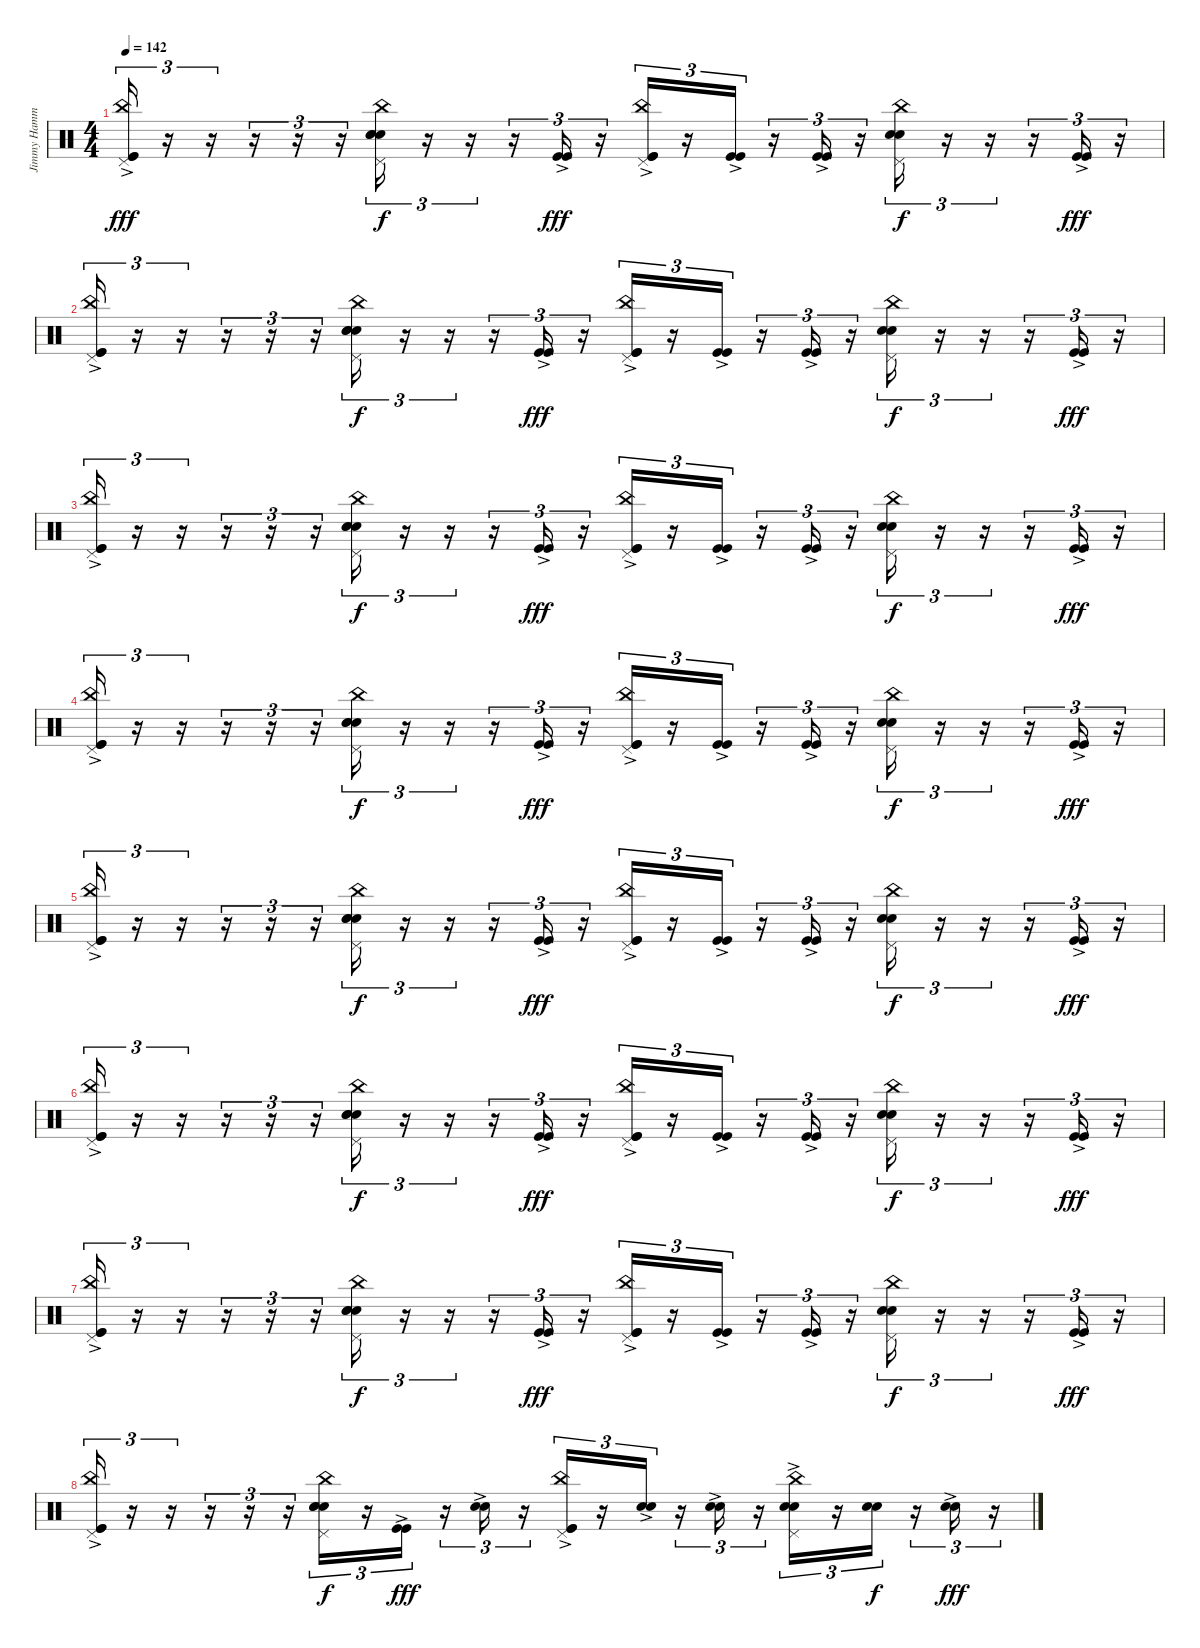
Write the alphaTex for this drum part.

\track ("Jimmy Hammer" "Jimmy Hamm") {instrument percussion}
\staff {score}
\articulation defaults
\ts (4 4)
\tempo 142
\clef neutral
\ks c
("Kick (hit)"{ac} "China (hit)" "Pedal Hi-Hat (hit)" "Kick (hit)"{ac}).16{tu (3 2) dy fff} r.16{tu (3 2)} r.16{tu (3 2)} r.16{tu (3 2)} r.16{tu (3 2)} r.16{tu (3 2)} ("China (hit)" "Electric Snare (hit)" "Electric Snare (hit)" "Electric Snare (hit)" "Pedal Hi-Hat (hit)").16{tu (3 2) dy f} r.16{tu (3 2)} r.16{tu (3 2)} r.16{tu (3 2)} ("Kick (hit)"{ac} "Kick (hit)"{ac}).16{tu (3 2) dy fff} r.16{tu (3 2)} ("China (hit)" "Kick (hit)"{ac} "Kick (hit)"{ac} "Pedal Hi-Hat (hit)").16{tu (3 2)} r.16{tu (3 2)} ("Kick (hit)"{ac} "Kick (hit)"{ac}).16{tu (3 2)} r.16{tu (3 2)} ("Kick (hit)"{ac} "Kick (hit)"{ac}).16{tu (3 2)} r.16{tu (3 2)} ("Electric Snare (hit)" "Electric Snare (hit)" "China (hit)" "Pedal Hi-Hat (hit)").16{tu (3 2) dy f} r.16{tu (3 2)} r.16{tu (3 2)} r.16{tu (3 2)} ("Kick (hit)"{ac} "Kick (hit)"{ac}).16{tu (3 2) dy fff} r.16{tu (3 2)} |
("Kick (hit)"{ac} "China (hit)" "Pedal Hi-Hat (hit)" "Kick (hit)"{ac}).16{tu (3 2)} r.16{tu (3 2)} r.16{tu (3 2)} r.16{tu (3 2)} r.16{tu (3 2)} r.16{tu (3 2)} ("China (hit)" "Electric Snare (hit)" "Electric Snare (hit)" "Electric Snare (hit)" "Pedal Hi-Hat (hit)").16{tu (3 2) dy f} r.16{tu (3 2)} r.16{tu (3 2)} r.16{tu (3 2)} ("Kick (hit)"{ac} "Kick (hit)"{ac}).16{tu (3 2) dy fff} r.16{tu (3 2)} ("China (hit)" "Kick (hit)"{ac} "Kick (hit)"{ac} "Pedal Hi-Hat (hit)").16{tu (3 2)} r.16{tu (3 2)} ("Kick (hit)"{ac} "Kick (hit)"{ac}).16{tu (3 2)} r.16{tu (3 2)} ("Kick (hit)"{ac} "Kick (hit)"{ac}).16{tu (3 2)} r.16{tu (3 2)} ("Electric Snare (hit)" "Electric Snare (hit)" "China (hit)" "Pedal Hi-Hat (hit)").16{tu (3 2) dy f} r.16{tu (3 2)} r.16{tu (3 2)} r.16{tu (3 2)} ("Kick (hit)"{ac} "Kick (hit)"{ac}).16{tu (3 2) dy fff} r.16{tu (3 2)} |
("Kick (hit)"{ac} "China (hit)" "Pedal Hi-Hat (hit)" "Kick (hit)"{ac}).16{tu (3 2)} r.16{tu (3 2)} r.16{tu (3 2)} r.16{tu (3 2)} r.16{tu (3 2)} r.16{tu (3 2)} ("China (hit)" "Electric Snare (hit)" "Electric Snare (hit)" "Electric Snare (hit)" "Pedal Hi-Hat (hit)").16{tu (3 2) dy f} r.16{tu (3 2)} r.16{tu (3 2)} r.16{tu (3 2)} ("Kick (hit)"{ac} "Kick (hit)"{ac}).16{tu (3 2) dy fff} r.16{tu (3 2)} ("China (hit)" "Kick (hit)"{ac} "Kick (hit)"{ac} "Pedal Hi-Hat (hit)").16{tu (3 2)} r.16{tu (3 2)} ("Kick (hit)"{ac} "Kick (hit)"{ac}).16{tu (3 2)} r.16{tu (3 2)} ("Kick (hit)"{ac} "Kick (hit)"{ac}).16{tu (3 2)} r.16{tu (3 2)} ("Electric Snare (hit)" "Electric Snare (hit)" "China (hit)" "Pedal Hi-Hat (hit)").16{tu (3 2) dy f} r.16{tu (3 2)} r.16{tu (3 2)} r.16{tu (3 2)} ("Kick (hit)"{ac} "Kick (hit)"{ac}).16{tu (3 2) dy fff} r.16{tu (3 2)} |
("Kick (hit)"{ac} "China (hit)" "Pedal Hi-Hat (hit)" "Kick (hit)"{ac}).16{tu (3 2)} r.16{tu (3 2)} r.16{tu (3 2)} r.16{tu (3 2)} r.16{tu (3 2)} r.16{tu (3 2)} ("China (hit)" "Electric Snare (hit)" "Electric Snare (hit)" "Electric Snare (hit)" "Pedal Hi-Hat (hit)").16{tu (3 2) dy f} r.16{tu (3 2)} r.16{tu (3 2)} r.16{tu (3 2)} ("Kick (hit)"{ac} "Kick (hit)"{ac}).16{tu (3 2) dy fff} r.16{tu (3 2)} ("China (hit)" "Kick (hit)"{ac} "Kick (hit)"{ac} "Pedal Hi-Hat (hit)").16{tu (3 2)} r.16{tu (3 2)} ("Kick (hit)"{ac} "Kick (hit)"{ac}).16{tu (3 2)} r.16{tu (3 2)} ("Kick (hit)"{ac} "Kick (hit)"{ac}).16{tu (3 2)} r.16{tu (3 2)} ("Electric Snare (hit)" "Electric Snare (hit)" "China (hit)" "Pedal Hi-Hat (hit)").16{tu (3 2) dy f} r.16{tu (3 2)} r.16{tu (3 2)} r.16{tu (3 2)} ("Kick (hit)"{ac} "Kick (hit)"{ac}).16{tu (3 2) dy fff} r.16{tu (3 2)} |
("Kick (hit)"{ac} "China (hit)" "Pedal Hi-Hat (hit)" "Kick (hit)"{ac}).16{tu (3 2)} r.16{tu (3 2)} r.16{tu (3 2)} r.16{tu (3 2)} r.16{tu (3 2)} r.16{tu (3 2)} ("China (hit)" "Electric Snare (hit)" "Electric Snare (hit)" "Electric Snare (hit)" "Pedal Hi-Hat (hit)").16{tu (3 2) dy f} r.16{tu (3 2)} r.16{tu (3 2)} r.16{tu (3 2)} ("Kick (hit)"{ac} "Kick (hit)"{ac}).16{tu (3 2) dy fff} r.16{tu (3 2)} ("China (hit)" "Kick (hit)"{ac} "Kick (hit)"{ac} "Pedal Hi-Hat (hit)").16{tu (3 2)} r.16{tu (3 2)} ("Kick (hit)"{ac} "Kick (hit)"{ac}).16{tu (3 2)} r.16{tu (3 2)} ("Kick (hit)"{ac} "Kick (hit)"{ac}).16{tu (3 2)} r.16{tu (3 2)} ("Electric Snare (hit)" "Electric Snare (hit)" "China (hit)" "Pedal Hi-Hat (hit)").16{tu (3 2) dy f} r.16{tu (3 2)} r.16{tu (3 2)} r.16{tu (3 2)} ("Kick (hit)"{ac} "Kick (hit)"{ac}).16{tu (3 2) dy fff} r.16{tu (3 2)} |
("Kick (hit)"{ac} "China (hit)" "Pedal Hi-Hat (hit)" "Kick (hit)"{ac}).16{tu (3 2)} r.16{tu (3 2)} r.16{tu (3 2)} r.16{tu (3 2)} r.16{tu (3 2)} r.16{tu (3 2)} ("China (hit)" "Electric Snare (hit)" "Electric Snare (hit)" "Electric Snare (hit)" "Pedal Hi-Hat (hit)").16{tu (3 2) dy f} r.16{tu (3 2)} r.16{tu (3 2)} r.16{tu (3 2)} ("Kick (hit)"{ac} "Kick (hit)"{ac}).16{tu (3 2) dy fff} r.16{tu (3 2)} ("China (hit)" "Kick (hit)"{ac} "Kick (hit)"{ac} "Pedal Hi-Hat (hit)").16{tu (3 2)} r.16{tu (3 2)} ("Kick (hit)"{ac} "Kick (hit)"{ac}).16{tu (3 2)} r.16{tu (3 2)} ("Kick (hit)"{ac} "Kick (hit)"{ac}).16{tu (3 2)} r.16{tu (3 2)} ("Electric Snare (hit)" "Electric Snare (hit)" "China (hit)" "Pedal Hi-Hat (hit)").16{tu (3 2) dy f} r.16{tu (3 2)} r.16{tu (3 2)} r.16{tu (3 2)} ("Kick (hit)"{ac} "Kick (hit)"{ac}).16{tu (3 2) dy fff} r.16{tu (3 2)} |
("Kick (hit)"{ac} "China (hit)" "Pedal Hi-Hat (hit)" "Kick (hit)"{ac}).16{tu (3 2)} r.16{tu (3 2)} r.16{tu (3 2)} r.16{tu (3 2)} r.16{tu (3 2)} r.16{tu (3 2)} ("China (hit)" "Electric Snare (hit)" "Electric Snare (hit)" "Electric Snare (hit)" "Pedal Hi-Hat (hit)").16{tu (3 2) dy f} r.16{tu (3 2)} r.16{tu (3 2)} r.16{tu (3 2)} ("Kick (hit)"{ac} "Kick (hit)"{ac}).16{tu (3 2) dy fff} r.16{tu (3 2)} ("China (hit)" "Kick (hit)"{ac} "Kick (hit)"{ac} "Pedal Hi-Hat (hit)").16{tu (3 2)} r.16{tu (3 2)} ("Kick (hit)"{ac} "Kick (hit)"{ac}).16{tu (3 2)} r.16{tu (3 2)} ("Kick (hit)"{ac} "Kick (hit)"{ac}).16{tu (3 2)} r.16{tu (3 2)} ("Electric Snare (hit)" "Electric Snare (hit)" "China (hit)" "Pedal Hi-Hat (hit)").16{tu (3 2) dy f} r.16{tu (3 2)} r.16{tu (3 2)} r.16{tu (3 2)} ("Kick (hit)"{ac} "Kick (hit)"{ac}).16{tu (3 2) dy fff} r.16{tu (3 2)} |
("Kick (hit)"{ac} "China (hit)" "Pedal Hi-Hat (hit)" "Kick (hit)"{ac}).16{tu (3 2)} r.16{tu (3 2)} r.16{tu (3 2)} r.16{tu (3 2)} r.16{tu (3 2)} r.16{tu (3 2)} ("China (hit)" "Electric Snare (hit)" "Electric Snare (hit)" "Electric Snare (hit)" "Pedal Hi-Hat (hit)").16{tu (3 2) dy f} r.16{tu (3 2)} ("Kick (hit)"{ac} "Kick (hit)"{ac}).16{tu (3 2) dy fff} r.16{tu (3 2)} ("Electric Snare (hit)"{ac} "Electric Snare (hit)"{ac}).16{tu (3 2)} r.16{tu (3 2)} ("China (hit)" "Kick (hit)"{ac} "Kick (hit)"{ac} "Pedal Hi-Hat (hit)").16{tu (3 2)} r.16{tu (3 2)} ("Electric Snare (hit)"{ac} "Electric Snare (hit)"{ac}).16{tu (3 2)} r.16{tu (3 2)} ("Electric Snare (hit)"{ac} "Electric Snare (hit)"{ac}).16{tu (3 2)} r.16{tu (3 2)} ("Electric Snare (hit)"{ac} "Electric Snare (hit)" "China (hit)" "Pedal Hi-Hat (hit)").16{tu (3 2)} r.16{tu (3 2)} ("Electric Snare (hit)" "Electric Snare (hit)").16{tu (3 2) dy f} r.16{tu (3 2)} ("Electric Snare (hit)"{ac} "Electric Snare (hit)"{ac}).16{tu (3 2) dy fff} r.16{tu (3 2)}
